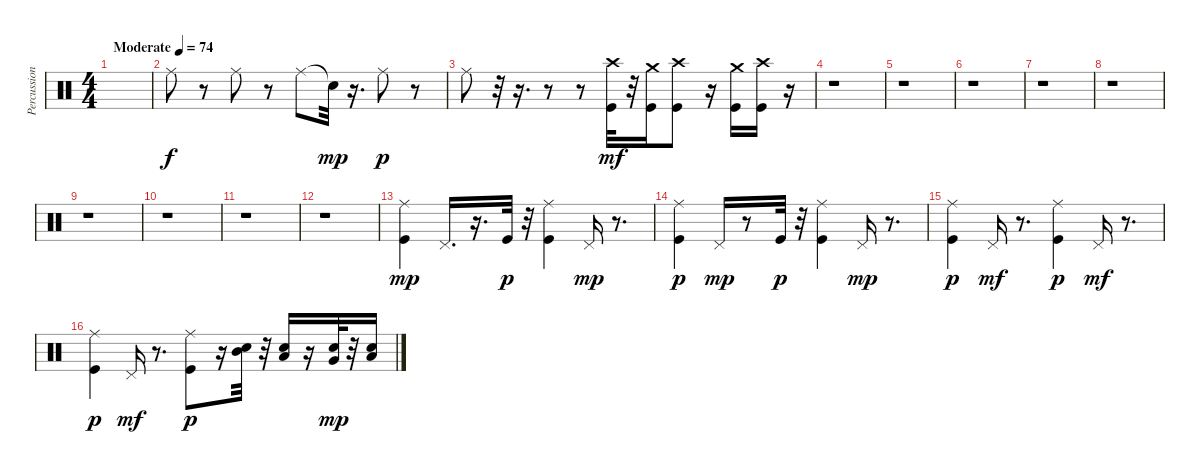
\track ("Percussion" "Percussion") {instrument percussion}
\staff {score}
\articulation defaults
\ts (4 4)
\tempo (74 "Moderate")
\clef neutral
\ks c
|
"Ride (middle)".8 r.8 "Ride (middle)".8 r.8 "Ride (middle)".8 "Snare (hit)"{t}.32{dy mp} r.16{d} "Ride (middle)".8{dy p} r.8 |
"Ride (middle)".8 r.32 r.16{d} r.8 r.8 ("Kick (hit)" "Crash high (hit)").32{dy mf} r.32 ("Kick (hit)" "Crash medium (hit)").16 ("Kick (hit)" "Crash high (hit)").8 r.16 ("Kick (hit)" "Crash medium (hit)").16 ("Kick (hit)" "Crash high (hit)").16 r.16 |
r.1 |
r.1 |
r.1 |
r.1 |
r.1 |
r.1 |
r.1 |
r.1 |
r.1 |
("Kick (hit)" "Ride (middle)").4{dy mp} "Pedal Hi-Hat (hit)".16{d} r.16{d} "Kick (hit)".32{dy p} r.32 ("Kick (hit)" "Ride (middle)").4 "Pedal Hi-Hat (hit)".16{dy mp} r.8{d} |
("Kick (hit)" "Ride (middle)").4{dy p} "Pedal Hi-Hat (hit)".16{dy mp} r.8 "Kick (hit)".32{dy p} r.32 ("Kick (hit)" "Ride (middle)").4 "Pedal Hi-Hat (hit)".16{dy mp} r.8{d} |
("Kick (hit)" "Ride (middle)").4{dy p} "Pedal Hi-Hat (hit)".16{dy mf} r.8{d} ("Kick (hit)" "Ride (middle)").4{dy p} "Pedal Hi-Hat (hit)".16{dy mf} r.8{d} |
("Kick (hit)" "Ride (middle)").4{dy p} "Pedal Hi-Hat (hit)".16{dy mf} r.8{d} ("Kick (hit)" "Ride (middle)").8{dy p} r.16 ("Mid Tom (hit)" "Snare (hit) 2").32 r.32 ("Low Tom (hit)" "Snare (hit) 2").16 r.16 ("Very Low Tom (hit)" "Snare (hit) 2").32{dy mp} r.32 ("Low Floor Tom (hit)" "Snare (hit) 2").16
